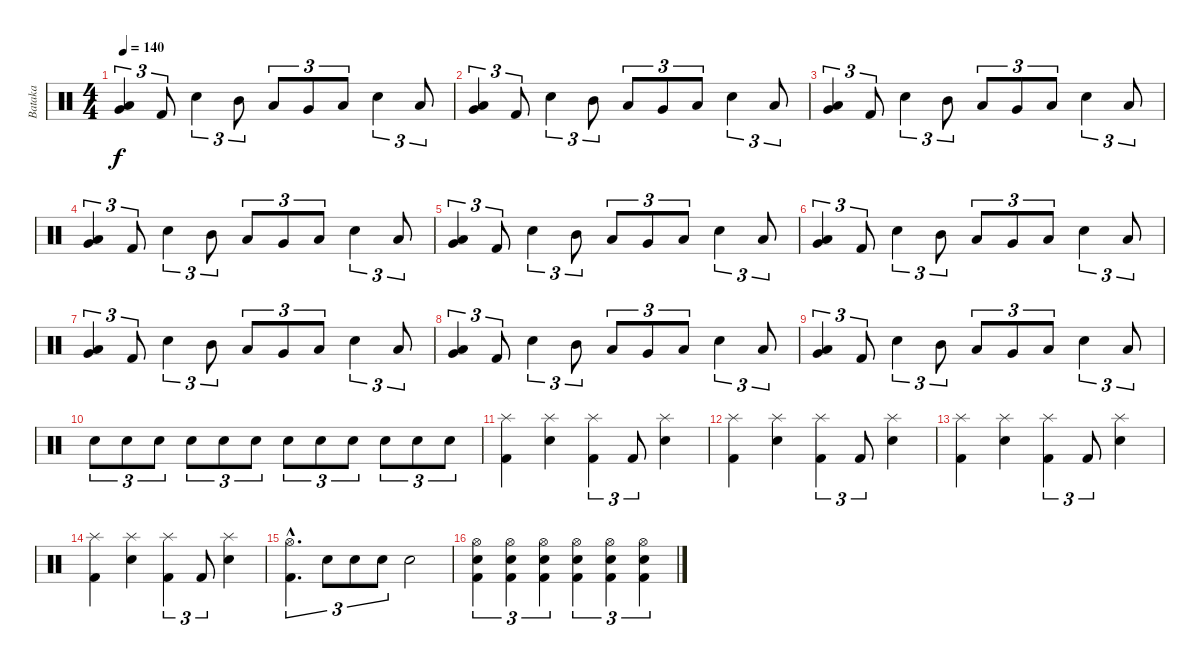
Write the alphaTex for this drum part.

\track ("Bataka" "Bataka") {instrument percussion}
\staff {score}
\articulation defaults
\ts (4 4)
\tempo 140
\clef neutral
\ks c
("Very Low Tom (hit)" "Low Tom (hit)").4{tu (3 2) dy f} "Kick (hit) 2".8{tu (3 2)} "Electric Snare (hit)".4{tu (3 2)} "Mid Tom (hit)".8{tu (3 2)} "Low Tom (hit)".8{tu (3 2)} "Very Low Tom (hit)".8{tu (3 2)} "Low Floor Tom (hit)".8{tu (3 2)} "Electric Snare (hit)".4{tu (3 2)} "Low Tom (hit)".8{tu (3 2)} |
("Very Low Tom (hit)" "Low Tom (hit)").4{tu (3 2)} "Kick (hit) 2".8{tu (3 2)} "Electric Snare (hit)".4{tu (3 2)} "Mid Tom (hit)".8{tu (3 2)} "Low Tom (hit)".8{tu (3 2)} "Very Low Tom (hit)".8{tu (3 2)} "Low Floor Tom (hit)".8{tu (3 2)} "Electric Snare (hit)".4{tu (3 2)} "Low Tom (hit)".8{tu (3 2)} |
("Very Low Tom (hit)" "Low Tom (hit)").4{tu (3 2)} "Kick (hit) 2".8{tu (3 2)} "Electric Snare (hit)".4{tu (3 2)} "Mid Tom (hit)".8{tu (3 2)} "Low Tom (hit)".8{tu (3 2)} "Very Low Tom (hit)".8{tu (3 2)} "Low Floor Tom (hit)".8{tu (3 2)} "Electric Snare (hit)".4{tu (3 2)} "Low Tom (hit)".8{tu (3 2)} |
("Very Low Tom (hit)" "Low Tom (hit)").4{tu (3 2)} "Kick (hit) 2".8{tu (3 2)} "Electric Snare (hit)".4{tu (3 2)} "Mid Tom (hit)".8{tu (3 2)} "Low Tom (hit)".8{tu (3 2)} "Very Low Tom (hit)".8{tu (3 2)} "Low Floor Tom (hit)".8{tu (3 2)} "Electric Snare (hit)".4{tu (3 2)} "Low Tom (hit)".8{tu (3 2)} |
("Very Low Tom (hit)" "Low Tom (hit)").4{tu (3 2)} "Kick (hit) 2".8{tu (3 2)} "Electric Snare (hit)".4{tu (3 2)} "Mid Tom (hit)".8{tu (3 2)} "Low Tom (hit)".8{tu (3 2)} "Very Low Tom (hit)".8{tu (3 2)} "Low Floor Tom (hit)".8{tu (3 2)} "Electric Snare (hit)".4{tu (3 2)} "Low Tom (hit)".8{tu (3 2)} |
("Very Low Tom (hit)" "Low Tom (hit)").4{tu (3 2)} "Kick (hit) 2".8{tu (3 2)} "Electric Snare (hit)".4{tu (3 2)} "Mid Tom (hit)".8{tu (3 2)} "Low Tom (hit)".8{tu (3 2)} "Very Low Tom (hit)".8{tu (3 2)} "Low Floor Tom (hit)".8{tu (3 2)} "Electric Snare (hit)".4{tu (3 2)} "Low Tom (hit)".8{tu (3 2)} |
("Very Low Tom (hit)" "Low Tom (hit)").4{tu (3 2)} "Kick (hit) 2".8{tu (3 2)} "Electric Snare (hit)".4{tu (3 2)} "Mid Tom (hit)".8{tu (3 2)} "Low Tom (hit)".8{tu (3 2)} "Very Low Tom (hit)".8{tu (3 2)} "Low Floor Tom (hit)".8{tu (3 2)} "Electric Snare (hit)".4{tu (3 2)} "Low Tom (hit)".8{tu (3 2)} |
("Very Low Tom (hit)" "Low Tom (hit)").4{tu (3 2)} "Kick (hit) 2".8{tu (3 2)} "Electric Snare (hit)".4{tu (3 2)} "Mid Tom (hit)".8{tu (3 2)} "Low Tom (hit)".8{tu (3 2)} "Very Low Tom (hit)".8{tu (3 2)} "Low Floor Tom (hit)".8{tu (3 2)} "Electric Snare (hit)".4{tu (3 2)} "Low Tom (hit)".8{tu (3 2)} |
("Very Low Tom (hit)" "Low Tom (hit)").4{tu (3 2)} "Kick (hit) 2".8{tu (3 2)} "Electric Snare (hit)".4{tu (3 2)} "Mid Tom (hit)".8{tu (3 2)} "Low Tom (hit)".8{tu (3 2)} "Very Low Tom (hit)".8{tu (3 2)} "Low Floor Tom (hit)".8{tu (3 2)} "Electric Snare (hit)".4{tu (3 2)} "Low Tom (hit)".8{tu (3 2)} |
"Electric Snare (hit)".8{tu (3 2)} "Electric Snare (hit)".8{tu (3 2)} "Electric Snare (hit)".8{tu (3 2)} "Electric Snare (hit)".8{tu (3 2)} "Electric Snare (hit)".8{tu (3 2)} "Electric Snare (hit)".8{tu (3 2)} "Electric Snare (hit)".8{tu (3 2)} "Electric Snare (hit)".8{tu (3 2)} "Electric Snare (hit)".8{tu (3 2)} "Electric Snare (hit)".8{tu (3 2)} "Electric Snare (hit)".8{tu (3 2)} "Electric Snare (hit)".8{tu (3 2)} |
("Splash (hit)" "Kick (hit) 2").4 ("Splash (hit)" "Electric Snare (hit)").4 ("Splash (hit)" "Kick (hit) 2").4{tu (3 2)} "Kick (hit) 2".8{tu (3 2)} ("Splash (hit)" "Electric Snare (hit)").4 |
("Splash (hit)" "Kick (hit) 2").4 ("Splash (hit)" "Electric Snare (hit)").4 ("Splash (hit)" "Kick (hit) 2").4{tu (3 2)} "Kick (hit) 2".8{tu (3 2)} ("Splash (hit)" "Electric Snare (hit)").4 |
("Splash (hit)" "Kick (hit) 2").4 ("Splash (hit)" "Electric Snare (hit)").4 ("Splash (hit)" "Kick (hit) 2").4{tu (3 2)} "Kick (hit) 2".8{tu (3 2)} ("Splash (hit)" "Electric Snare (hit)").4 |
("Splash (hit)" "Kick (hit) 2").4 ("Splash (hit)" "Electric Snare (hit)").4 ("Splash (hit)" "Kick (hit) 2").4{tu (3 2)} "Kick (hit) 2".8{tu (3 2)} ("Splash (hit)" "Electric Snare (hit)").4 |
("Hi-Hat (open)"{hac} "Kick (hit) 2"{hac}).4{d tu (3 2)} "Electric Snare (hit)".8{tu (3 2)} "Electric Snare (hit)".8{tu (3 2)} "Electric Snare (hit)".8{tu (3 2)} "Electric Snare (hit)".2 |
("Hi-Hat (open)" "Electric Snare (hit)" "Kick (hit) 2").4{tu (3 2)} ("Hi-Hat (open)" "Electric Snare (hit)" "Kick (hit) 2").4{tu (3 2)} ("Hi-Hat (open)" "Electric Snare (hit)" "Kick (hit) 2").4{tu (3 2)} ("Hi-Hat (open)" "Electric Snare (hit)" "Kick (hit) 2").4{tu (3 2)} ("Hi-Hat (open)" "Electric Snare (hit)" "Kick (hit) 2").4{tu (3 2)} ("Hi-Hat (open)" "Electric Snare (hit)" "Kick (hit) 2").4{tu (3 2)}
